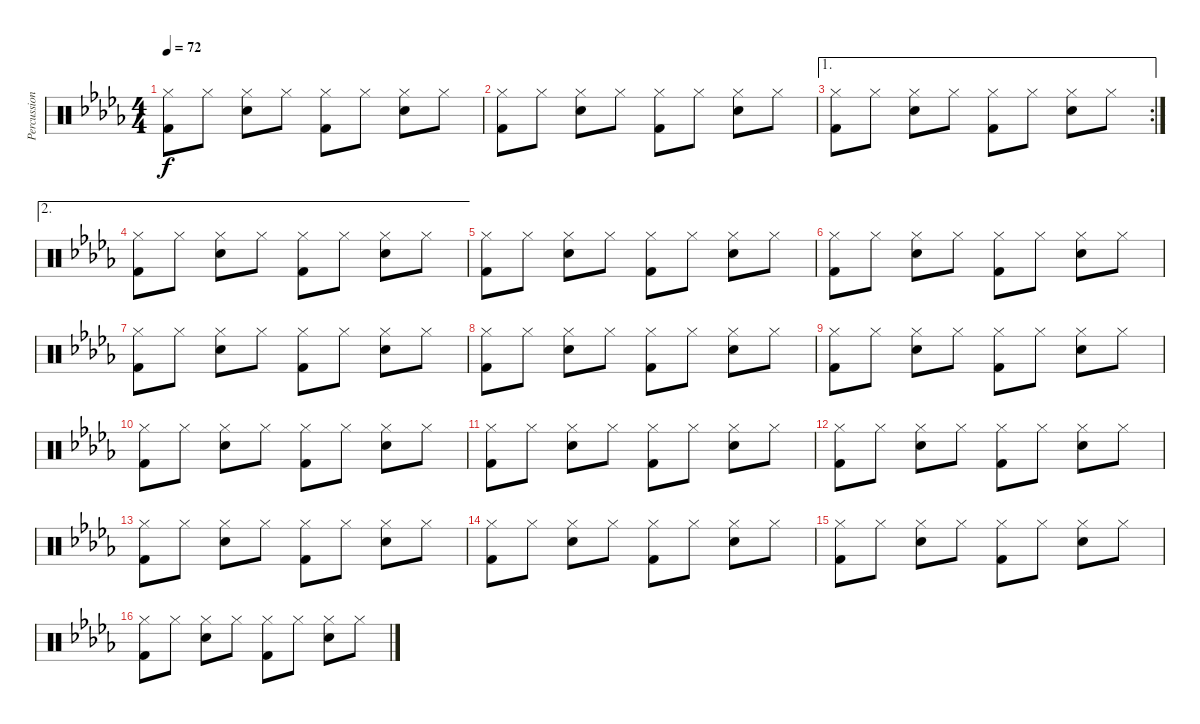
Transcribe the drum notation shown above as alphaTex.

\track ("Percussions" "Percussion") {instrument percussion}
\staff {score}
\articulation defaults
\ts (4 4)
\tempo 72
\clef neutral
\ks db
("Kick (hit) 2" "Hi-Hat (closed)").8{dy f} "Hi-Hat (closed)".8 ("Snare (hit) 2" "Hi-Hat (closed)").8 "Hi-Hat (closed)".8 ("Kick (hit) 2" "Hi-Hat (closed)").8 "Hi-Hat (closed)".8 ("Snare (hit) 2" "Hi-Hat (closed)").8 "Hi-Hat (closed)".8 |
("Kick (hit) 2" "Hi-Hat (closed)").8 "Hi-Hat (closed)".8 ("Snare (hit) 2" "Hi-Hat (closed)").8 "Hi-Hat (closed)".8 ("Kick (hit) 2" "Hi-Hat (closed)").8 "Hi-Hat (closed)".8 ("Snare (hit) 2" "Hi-Hat (closed)").8 "Hi-Hat (closed)".8 |
\ae 1
\rc 2
("Kick (hit) 2" "Hi-Hat (closed)").8 "Hi-Hat (closed)".8 ("Snare (hit) 2" "Hi-Hat (closed)").8 "Hi-Hat (closed)".8 ("Kick (hit) 2" "Hi-Hat (closed)").8 "Hi-Hat (closed)".8 ("Snare (hit) 2" "Hi-Hat (closed)").8 "Hi-Hat (closed)".8 |
\ae 2
("Kick (hit) 2" "Hi-Hat (closed)").8 "Hi-Hat (closed)".8 ("Snare (hit) 2" "Hi-Hat (closed)").8 "Hi-Hat (closed)".8 ("Kick (hit) 2" "Hi-Hat (closed)").8 "Hi-Hat (closed)".8 ("Snare (hit) 2" "Hi-Hat (closed)").8 "Hi-Hat (closed)".8 |
("Kick (hit) 2" "Hi-Hat (closed)").8 "Hi-Hat (closed)".8 ("Snare (hit) 2" "Hi-Hat (closed)").8 "Hi-Hat (closed)".8 ("Kick (hit) 2" "Hi-Hat (closed)").8 "Hi-Hat (closed)".8 ("Snare (hit) 2" "Hi-Hat (closed)").8 "Hi-Hat (closed)".8 |
("Kick (hit) 2" "Hi-Hat (closed)").8 "Hi-Hat (closed)".8 ("Snare (hit) 2" "Hi-Hat (closed)").8 "Hi-Hat (closed)".8 ("Kick (hit) 2" "Hi-Hat (closed)").8 "Hi-Hat (closed)".8 ("Snare (hit) 2" "Hi-Hat (closed)").8 "Hi-Hat (closed)".8 |
("Kick (hit) 2" "Hi-Hat (closed)").8 "Hi-Hat (closed)".8 ("Snare (hit) 2" "Hi-Hat (closed)").8 "Hi-Hat (closed)".8 ("Kick (hit) 2" "Hi-Hat (closed)").8 "Hi-Hat (closed)".8 ("Snare (hit) 2" "Hi-Hat (closed)").8 "Hi-Hat (closed)".8 |
("Kick (hit) 2" "Hi-Hat (closed)").8 "Hi-Hat (closed)".8 ("Snare (hit) 2" "Hi-Hat (closed)").8 "Hi-Hat (closed)".8 ("Kick (hit) 2" "Hi-Hat (closed)").8 "Hi-Hat (closed)".8 ("Snare (hit) 2" "Hi-Hat (closed)").8 "Hi-Hat (closed)".8 |
("Kick (hit) 2" "Hi-Hat (closed)").8 "Hi-Hat (closed)".8 ("Snare (hit) 2" "Hi-Hat (closed)").8 "Hi-Hat (closed)".8 ("Kick (hit) 2" "Hi-Hat (closed)").8 "Hi-Hat (closed)".8 ("Snare (hit) 2" "Hi-Hat (closed)").8 "Hi-Hat (closed)".8 |
("Kick (hit) 2" "Hi-Hat (closed)").8 "Hi-Hat (closed)".8 ("Snare (hit) 2" "Hi-Hat (closed)").8 "Hi-Hat (closed)".8 ("Kick (hit) 2" "Hi-Hat (closed)").8 "Hi-Hat (closed)".8 ("Snare (hit) 2" "Hi-Hat (closed)").8 "Hi-Hat (closed)".8 |
("Kick (hit) 2" "Hi-Hat (closed)").8 "Hi-Hat (closed)".8 ("Snare (hit) 2" "Hi-Hat (closed)").8 "Hi-Hat (closed)".8 ("Kick (hit) 2" "Hi-Hat (closed)").8 "Hi-Hat (closed)".8 ("Snare (hit) 2" "Hi-Hat (closed)").8 "Hi-Hat (closed)".8 |
("Kick (hit) 2" "Hi-Hat (closed)").8 "Hi-Hat (closed)".8 ("Snare (hit) 2" "Hi-Hat (closed)").8 "Hi-Hat (closed)".8 ("Kick (hit) 2" "Hi-Hat (closed)").8 "Hi-Hat (closed)".8 ("Snare (hit) 2" "Hi-Hat (closed)").8 "Hi-Hat (closed)".8 |
("Kick (hit) 2" "Hi-Hat (closed)").8 "Hi-Hat (closed)".8 ("Snare (hit) 2" "Hi-Hat (closed)").8 "Hi-Hat (closed)".8 ("Kick (hit) 2" "Hi-Hat (closed)").8 "Hi-Hat (closed)".8 ("Snare (hit) 2" "Hi-Hat (closed)").8 "Hi-Hat (closed)".8 |
("Kick (hit) 2" "Hi-Hat (closed)").8 "Hi-Hat (closed)".8 ("Snare (hit) 2" "Hi-Hat (closed)").8 "Hi-Hat (closed)".8 ("Kick (hit) 2" "Hi-Hat (closed)").8 "Hi-Hat (closed)".8 ("Snare (hit) 2" "Hi-Hat (closed)").8 "Hi-Hat (closed)".8 |
("Kick (hit) 2" "Hi-Hat (closed)").8 "Hi-Hat (closed)".8 ("Snare (hit) 2" "Hi-Hat (closed)").8 "Hi-Hat (closed)".8 ("Kick (hit) 2" "Hi-Hat (closed)").8 "Hi-Hat (closed)".8 ("Snare (hit) 2" "Hi-Hat (closed)").8 "Hi-Hat (closed)".8 |
("Kick (hit) 2" "Hi-Hat (closed)").8 "Hi-Hat (closed)".8 ("Snare (hit) 2" "Hi-Hat (closed)").8 "Hi-Hat (closed)".8 ("Kick (hit) 2" "Hi-Hat (closed)").8 "Hi-Hat (closed)".8 ("Snare (hit) 2" "Hi-Hat (closed)").8 "Hi-Hat (closed)".8
